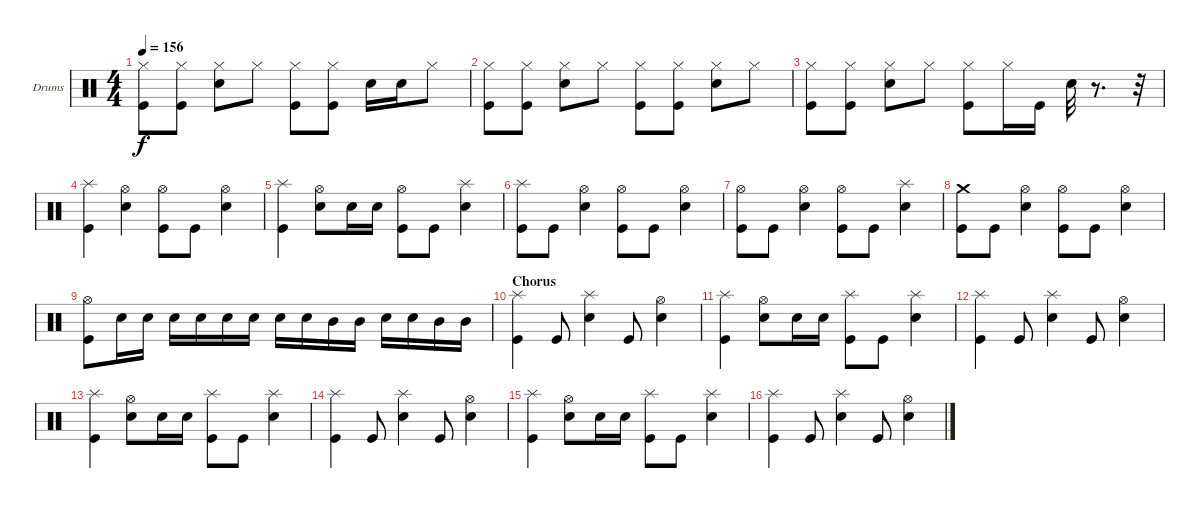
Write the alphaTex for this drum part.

\bracketExtendMode groupsimilarinstruments
\firstSystemTrackNameOrientation horizontal
\otherSystemsTrackNameOrientation horizontal
\track ("Drumkit" "Drums") {instrument percussion}
\staff {score}
\articulation defaults
\ts (4 4)
\tempo 156
\clef neutral
\scale
1.02648
\ks c
("Hi-Hat (closed)" "Kick (hit)").8{dy f} ("Hi-Hat (closed)" "Kick (hit)").8 ("Hi-Hat (closed)" "Snare (hit) 2").8 "Hi-Hat (closed)".8 ("Hi-Hat (closed)" "Kick (hit)").8 ("Hi-Hat (closed)" "Kick (hit)").8 "Snare (hit) 2".16 "Snare (hit) 2".16 "Hi-Hat (closed)".8 |
\scale
0.973518 ("Hi-Hat (closed)" "Kick (hit)").8 ("Hi-Hat (closed)" "Kick (hit)").8 ("Hi-Hat (closed)" "Snare (hit) 2").8 "Hi-Hat (closed)".8 ("Hi-Hat (closed)" "Kick (hit)").8 ("Hi-Hat (closed)" "Kick (hit)").8 ("Hi-Hat (closed)" "Snare (hit) 2").8 "Hi-Hat (closed)".8 |
\scale
1.02648 ("Hi-Hat (closed)" "Kick (hit)").8 ("Hi-Hat (closed)" "Kick (hit)").8 ("Hi-Hat (closed)" "Snare (hit) 2").8 "Hi-Hat (closed)".8 ("Hi-Hat (closed)" "Kick (hit)").8 "Hi-Hat (closed)".16 "Kick (hit)".16 "Snare (hit) 2".32 r.8{d} r.32 |
\scale
0.973518 ("Splash (hit)" "Kick (hit)").4 ("Hi-Hat (open)" "Snare (hit) 2").4 ("Hi-Hat (open)" "Kick (hit)").8 "Kick (hit)".8 ("Hi-Hat (open)" "Snare (hit) 2").4 |
\scale
1.02648 ("Splash (hit)" "Kick (hit)").4 ("Hi-Hat (open)" "Snare (hit) 2").8 "Snare (hit) 2".16 "Snare (hit) 2".16 ("Hi-Hat (open)" "Kick (hit)").8 "Kick (hit)".8 ("Splash (hit)" "Snare (hit) 2").4 |
\scale
0.973518 ("Splash (hit)" "Kick (hit)").8 "Kick (hit)".8 ("Hi-Hat (open)" "Snare (hit) 2").4 ("Hi-Hat (open)" "Kick (hit)").8 "Kick (hit)".8 ("Hi-Hat (open)" "Snare (hit) 2").4 |
\scale
1.02648 ("Hi-Hat (open)" "Kick (hit)").8 "Kick (hit)".8 ("Hi-Hat (open)" "Snare (hit) 2").4 ("Hi-Hat (open)" "Kick (hit)").8 "Kick (hit)".8 ("Splash (hit)" "Snare (hit) 2").4 |
\scale
0.973518 ("Crash medium (hit)" "Kick (hit)").8 "Kick (hit)".8 ("Hi-Hat (open)" "Snare (hit) 2").4 ("Hi-Hat (open)" "Kick (hit)").8 "Kick (hit)".8 ("Hi-Hat (open)" "Snare (hit) 2").4 |
\scale
1.02648 ("Hi-Hat (open)" "Kick (hit)").8 "Snare (hit) 2".16 "Snare (hit) 2".16 "Snare (hit) 2".16 "Snare (hit) 2".16 "Snare (hit) 2".16 "Snare (hit) 2".16 "Snare (hit) 2".16 "Snare (hit) 2".16 "Mid Tom (hit)".16 "Mid Tom (hit)".16 "Snare (hit) 2".16 "Snare (hit) 2".16 "Mid Tom (hit)".16 "Mid Tom (hit)".16 |
\section ("" "Chorus")
\scale
0.973518 ("Splash (hit)" "Kick (hit)").4 "Kick (hit)".8 ("Splash (hit)" "Snare (hit) 2").4 "Kick (hit)".8 ("Hi-Hat (open)" "Snare (hit) 2").4 |
\scale
1.02648 ("Splash (hit)" "Kick (hit)").4 ("Hi-Hat (open)" "Snare (hit) 2").8 "Snare (hit) 2".16 "Snare (hit) 2".16 ("Splash (hit)" "Kick (hit)").8 "Kick (hit)".8 ("Splash (hit)" "Snare (hit) 2").4 |
\scale
0.973518 ("Splash (hit)" "Kick (hit)").4 "Kick (hit)".8 ("Splash (hit)" "Snare (hit) 2").4 "Kick (hit)".8 ("Hi-Hat (open)" "Snare (hit) 2").4 |
\scale
1.02648 ("Splash (hit)" "Kick (hit)").4 ("Hi-Hat (open)" "Snare (hit) 2").8 "Snare (hit) 2".16 "Snare (hit) 2".16 ("Splash (hit)" "Kick (hit)").8 "Kick (hit)".8 ("Splash (hit)" "Snare (hit) 2").4 |
\scale
0.973518 ("Splash (hit)" "Kick (hit)").4 "Kick (hit)".8 ("Splash (hit)" "Snare (hit) 2").4 "Kick (hit)".8 ("Hi-Hat (open)" "Snare (hit) 2").4 |
\scale
1.02648 ("Splash (hit)" "Kick (hit)").4 ("Hi-Hat (open)" "Snare (hit) 2").8 "Snare (hit) 2".16 "Snare (hit) 2".16 ("Splash (hit)" "Kick (hit)").8 "Kick (hit)".8 ("Splash (hit)" "Snare (hit) 2").4 |
\scale
0.973518 ("Splash (hit)" "Kick (hit)").4 "Kick (hit)".8 ("Splash (hit)" "Snare (hit) 2").4 "Kick (hit)".8 ("Hi-Hat (open)" "Snare (hit) 2").4
